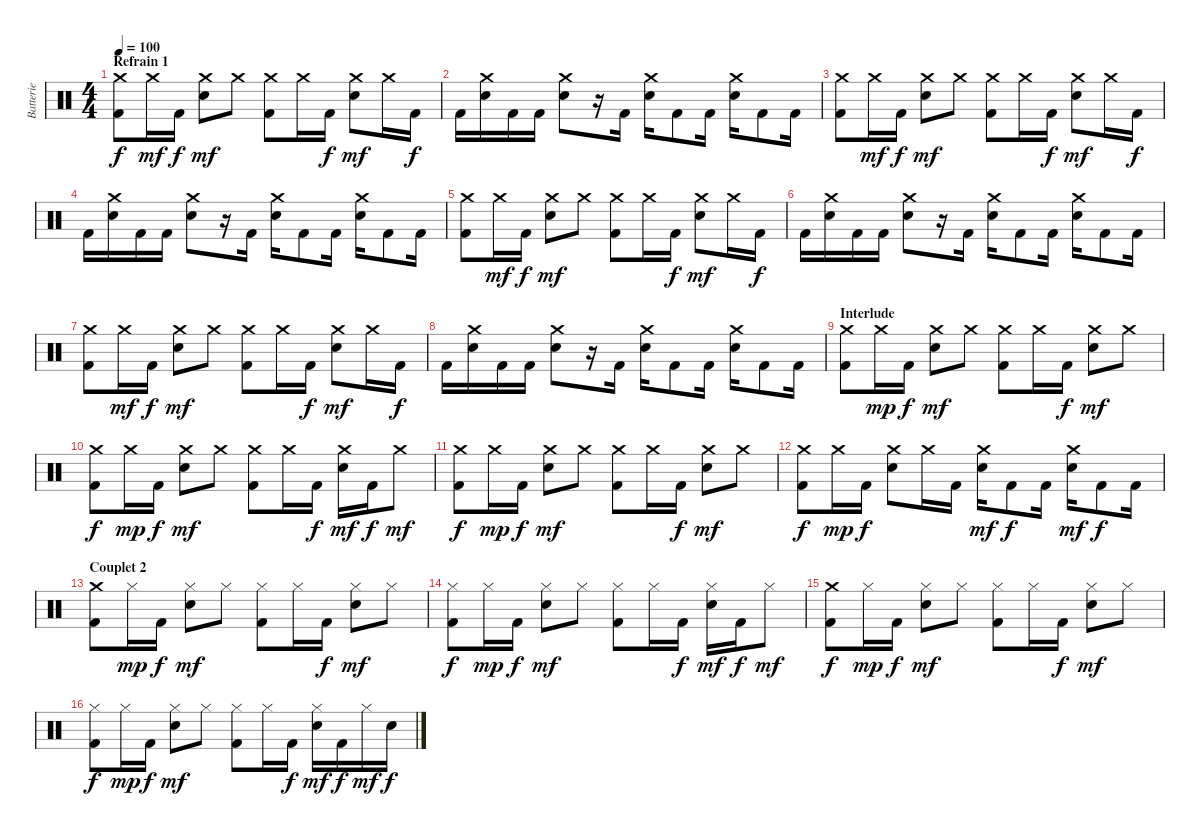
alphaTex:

\track ("Batterie" "Batterie") {instrument percussion}
\staff {score}
\articulation defaults
\ts (4 4)
\section ("" "Refrain 1")
\tempo 100
\clef neutral
\ks c
("Crash medium (hit)" "Kick (hit) 2").8{dy f} "Crash medium (hit)".16{dy mf} "Kick (hit) 2".16{dy f} ("Crash medium (hit)" "Electric Snare (hit)").8{dy mf} "Crash medium (hit)".8 ("Crash medium (hit)" "Kick (hit) 2").8 "Crash medium (hit)".16 "Kick (hit) 2".16{dy f} ("Crash medium (hit)" "Electric Snare (hit)").8{dy mf} "Crash medium (hit)".16 "Kick (hit) 2".16{dy f} |
"Kick (hit) 2".16 ("Crash medium (hit)" "Electric Snare (hit)").16 "Kick (hit) 2".16 "Kick (hit) 2".16 ("Crash medium (hit)" "Electric Snare (hit)").8 r.16 "Kick (hit) 2".16 ("Crash medium (hit)" "Electric Snare (hit)").16 "Kick (hit) 2".8 "Kick (hit) 2".16 ("Crash medium (hit)" "Electric Snare (hit)").16 "Kick (hit) 2".8 "Kick (hit) 2".16 |
("Crash medium (hit)" "Kick (hit) 2").8 "Crash medium (hit)".16{dy mf} "Kick (hit) 2".16{dy f} ("Crash medium (hit)" "Electric Snare (hit)").8{dy mf} "Crash medium (hit)".8 ("Crash medium (hit)" "Kick (hit) 2").8 "Crash medium (hit)".16 "Kick (hit) 2".16{dy f} ("Crash medium (hit)" "Electric Snare (hit)").8{dy mf} "Crash medium (hit)".16 "Kick (hit) 2".16{dy f} |
"Kick (hit) 2".16 ("Crash medium (hit)" "Electric Snare (hit)").16 "Kick (hit) 2".16 "Kick (hit) 2".16 ("Crash medium (hit)" "Electric Snare (hit)").8 r.16 "Kick (hit) 2".16 ("Crash medium (hit)" "Electric Snare (hit)").16 "Kick (hit) 2".8 "Kick (hit) 2".16 ("Crash medium (hit)" "Electric Snare (hit)").16 "Kick (hit) 2".8 "Kick (hit) 2".16 |
("Crash medium (hit)" "Kick (hit) 2").8 "Crash medium (hit)".16{dy mf} "Kick (hit) 2".16{dy f} ("Crash medium (hit)" "Electric Snare (hit)").8{dy mf} "Crash medium (hit)".8 ("Crash medium (hit)" "Kick (hit) 2").8 "Crash medium (hit)".16 "Kick (hit) 2".16{dy f} ("Crash medium (hit)" "Electric Snare (hit)").8{dy mf} "Crash medium (hit)".16 "Kick (hit) 2".16{dy f} |
"Kick (hit) 2".16 ("Crash medium (hit)" "Electric Snare (hit)").16 "Kick (hit) 2".16 "Kick (hit) 2".16 ("Crash medium (hit)" "Electric Snare (hit)").8 r.16 "Kick (hit) 2".16 ("Crash medium (hit)" "Electric Snare (hit)").16 "Kick (hit) 2".8 "Kick (hit) 2".16 ("Crash medium (hit)" "Electric Snare (hit)").16 "Kick (hit) 2".8 "Kick (hit) 2".16 |
("Crash medium (hit)" "Kick (hit) 2").8 "Crash medium (hit)".16{dy mf} "Kick (hit) 2".16{dy f} ("Crash medium (hit)" "Electric Snare (hit)").8{dy mf} "Crash medium (hit)".8 ("Crash medium (hit)" "Kick (hit) 2").8 "Crash medium (hit)".16 "Kick (hit) 2".16{dy f} ("Crash medium (hit)" "Electric Snare (hit)").8{dy mf} "Crash medium (hit)".16 "Kick (hit) 2".16{dy f} |
"Kick (hit) 2".16 ("Crash medium (hit)" "Electric Snare (hit)").16 "Kick (hit) 2".16 "Kick (hit) 2".16 ("Crash medium (hit)" "Electric Snare (hit)").8 r.16 "Kick (hit) 2".16 ("Crash medium (hit)" "Electric Snare (hit)").16 "Kick (hit) 2".8 "Kick (hit) 2".16 ("Crash medium (hit)" "Electric Snare (hit)").16 "Kick (hit) 2".8 "Kick (hit) 2".16 |
\section ("" "Interlude")
("Crash medium (hit)" "Kick (hit) 2").8 "Crash medium (hit)".16{dy mp} "Kick (hit) 2".16{dy f} ("Crash medium (hit)" "Electric Snare (hit)").8{dy mf} "Crash medium (hit)".8 ("Crash medium (hit)" "Kick (hit) 2").8 "Crash medium (hit)".16 "Kick (hit) 2".16{dy f} ("Crash medium (hit)" "Electric Snare (hit)").8{dy mf} "Crash medium (hit)".8 |
("Crash medium (hit)" "Kick (hit) 2").8{dy f} "Crash medium (hit)".16{dy mp} "Kick (hit) 2".16{dy f} ("Crash medium (hit)" "Electric Snare (hit)").8{dy mf} "Crash medium (hit)".8 ("Crash medium (hit)" "Kick (hit) 2").8 "Crash medium (hit)".16 "Kick (hit) 2".16{dy f} ("Crash medium (hit)" "Electric Snare (hit)").16{dy mf} "Kick (hit) 2".16{dy f} "Crash medium (hit)".8{dy mf} |
("Crash medium (hit)" "Kick (hit) 2").8{dy f} "Crash medium (hit)".16{dy mp} "Kick (hit) 2".16{dy f} ("Crash medium (hit)" "Electric Snare (hit)").8{dy mf} "Crash medium (hit)".8 ("Crash medium (hit)" "Kick (hit) 2").8 "Crash medium (hit)".16 "Kick (hit) 2".16{dy f} ("Crash medium (hit)" "Electric Snare (hit)").8{dy mf} "Crash medium (hit)".8 |
("Crash medium (hit)" "Kick (hit) 2").8{dy f} "Crash medium (hit)".16{dy mp} "Kick (hit) 2".16{dy f} ("Crash medium (hit)" "Electric Snare (hit)").8 "Crash medium (hit)".16 "Kick (hit) 2".16 ("Crash medium (hit)" "Electric Snare (hit)").16{dy mf} "Kick (hit) 2".8{dy f} "Kick (hit) 2".16 ("Crash medium (hit)" "Electric Snare (hit)").16{dy mf} "Kick (hit) 2".8{dy f} "Kick (hit) 2".16 |
\section ("" "Couplet 2")
("Crash medium (hit)" "Kick (hit) 2").8 "Hi-Hat (closed)".16{dy mp} "Kick (hit) 2".16{dy f} ("Hi-Hat (closed)" "Electric Snare (hit)").8{dy mf} "Hi-Hat (closed)".8 ("Hi-Hat (closed)" "Kick (hit) 2").8 "Hi-Hat (closed)".16 "Kick (hit) 2".16{dy f} ("Hi-Hat (closed)" "Electric Snare (hit)").8{dy mf} "Hi-Hat (closed)".8 |
("Hi-Hat (closed)" "Kick (hit) 2").8{dy f} "Hi-Hat (closed)".16{dy mp} "Kick (hit) 2".16{dy f} ("Hi-Hat (closed)" "Electric Snare (hit)").8{dy mf} "Hi-Hat (closed)".8 ("Hi-Hat (closed)" "Kick (hit) 2").8 "Hi-Hat (closed)".16 "Kick (hit) 2".16{dy f} ("Hi-Hat (closed)" "Electric Snare (hit)").16{dy mf} "Kick (hit) 2".16{dy f} "Hi-Hat (closed)".8{dy mf} |
("Crash medium (hit)" "Kick (hit) 2").8{dy f} "Hi-Hat (closed)".16{dy mp} "Kick (hit) 2".16{dy f} ("Hi-Hat (closed)" "Electric Snare (hit)").8{dy mf} "Hi-Hat (closed)".8 ("Hi-Hat (closed)" "Kick (hit) 2").8 "Hi-Hat (closed)".16 "Kick (hit) 2".16{dy f} ("Hi-Hat (closed)" "Electric Snare (hit)").8{dy mf} "Hi-Hat (closed)".8 |
("Hi-Hat (closed)" "Kick (hit) 2").8{dy f} "Hi-Hat (closed)".16{dy mp} "Kick (hit) 2".16{dy f} ("Hi-Hat (closed)" "Electric Snare (hit)").8{dy mf} "Hi-Hat (closed)".8 ("Hi-Hat (closed)" "Kick (hit) 2").8 "Hi-Hat (closed)".16 "Kick (hit) 2".16{dy f} ("Hi-Hat (closed)" "Electric Snare (hit)").16{dy mf} "Kick (hit) 2".16{dy f} "Hi-Hat (closed)".16{dy mf} "Electric Snare (hit)".16{dy f}
